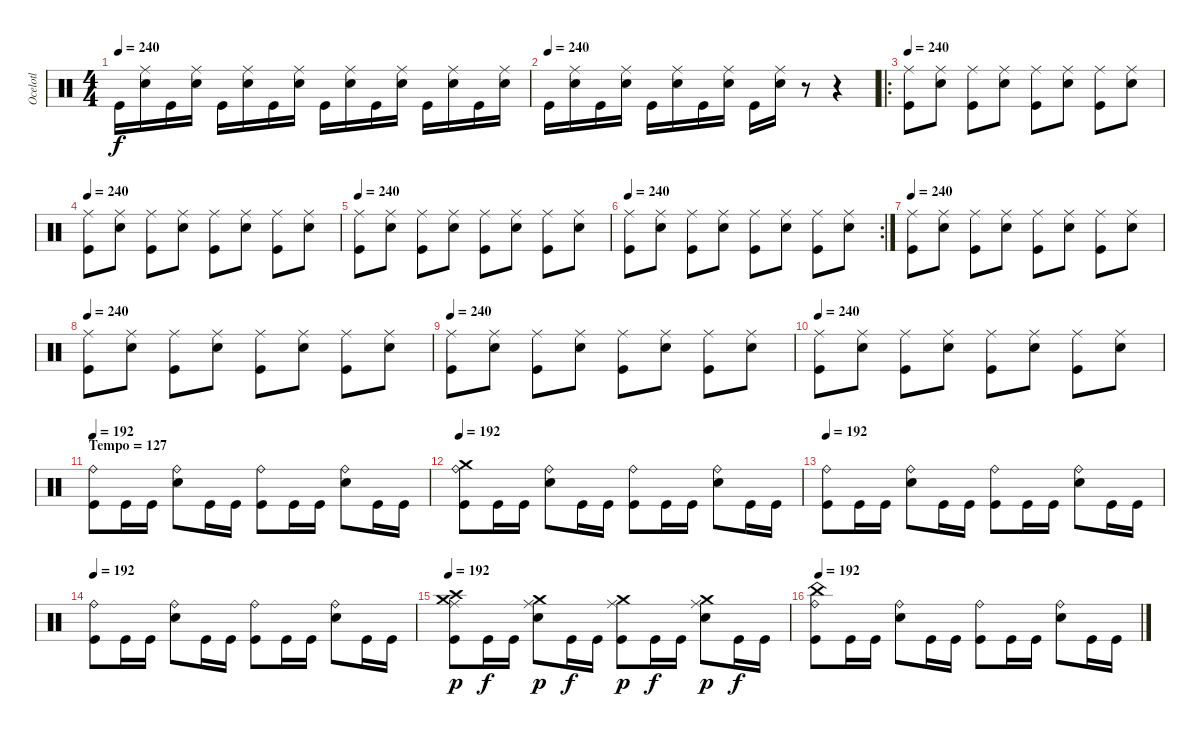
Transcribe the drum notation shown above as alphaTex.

\track ("Ocelotl" "Ocelotl") {instrument percussion}
\staff {score}
\articulation defaults
\ts (4 4)
\tempo 240
\clef neutral
\ks c "Kick (hit)".16{dy f}
("Ride (middle)" "Snare (hit) 2").16 "Kick (hit)".16 ("Ride (middle)" "Snare (hit) 2").16 "Kick (hit)".16 ("Ride (middle)" "Snare (hit) 2").16 "Kick (hit)".16 ("Ride (middle)" "Snare (hit) 2").16 "Kick (hit)".16 ("Ride (middle)" "Snare (hit) 2").16 "Kick (hit)".16 ("Ride (middle)" "Snare (hit) 2").16 "Kick (hit)".16 ("Ride (middle)" "Snare (hit) 2").16 "Kick (hit)".16 ("Ride (middle)" "Snare (hit) 2").16 |
\tempo (240)
"Kick (hit)".16 ("Ride (middle)" "Snare (hit) 2").16 "Kick (hit)".16 ("Ride (middle)" "Snare (hit) 2").16 "Kick (hit)".16 ("Ride (middle)" "Snare (hit) 2").16 "Kick (hit)".16 ("Ride (middle)" "Snare (hit) 2").16 "Kick (hit)".16 ("Ride (middle)" "Snare (hit) 2").16 r.8 r.4 |
\ro
\tempo 240
("Ride (middle)" "Kick (hit)").8 ("Ride (middle)" "Snare (hit) 2").8 ("Ride (middle)" "Kick (hit)").8 ("Ride (middle)" "Snare (hit) 2").8 ("Ride (middle)" "Kick (hit)").8 ("Ride (middle)" "Snare (hit) 2").8 ("Ride (middle)" "Kick (hit)").8 ("Ride (middle)" "Snare (hit) 2").8 |
\tempo 240
("Ride (middle)" "Kick (hit)").8 ("Ride (middle)" "Snare (hit) 2").8 ("Ride (middle)" "Kick (hit)").8 ("Ride (middle)" "Snare (hit) 2").8 ("Ride (middle)" "Kick (hit)").8 ("Ride (middle)" "Snare (hit) 2").8 ("Ride (middle)" "Kick (hit)").8 ("Ride (middle)" "Snare (hit) 2").8 |
\tempo 240
("Ride (middle)" "Kick (hit)").8 ("Ride (middle)" "Snare (hit) 2").8 ("Ride (middle)" "Kick (hit)").8 ("Ride (middle)" "Snare (hit) 2").8 ("Ride (middle)" "Kick (hit)").8 ("Ride (middle)" "Snare (hit) 2").8 ("Ride (middle)" "Kick (hit)").8 ("Ride (middle)" "Snare (hit) 2").8 |
\rc 2
\tempo 240
("Ride (middle)" "Kick (hit)").8 ("Ride (middle)" "Snare (hit) 2").8 ("Ride (middle)" "Kick (hit)").8 ("Ride (middle)" "Snare (hit) 2").8 ("Ride (middle)" "Kick (hit)").8 ("Ride (middle)" "Snare (hit) 2").8 ("Ride (middle)" "Kick (hit)").8 ("Ride (middle)" "Snare (hit) 2").8 |
\tempo 240
("Ride (middle)" "Kick (hit)").8 ("Ride (middle)" "Snare (hit) 2").8 ("Ride (middle)" "Kick (hit)").8 ("Ride (middle)" "Snare (hit) 2").8 ("Ride (middle)" "Kick (hit)").8 ("Ride (middle)" "Snare (hit) 2").8 ("Ride (middle)" "Kick (hit)").8 ("Ride (middle)" "Snare (hit) 2").8 |
\tempo 240
("Ride (middle)" "Kick (hit)").8 ("Ride (middle)" "Snare (hit) 2").8 ("Ride (middle)" "Kick (hit)").8 ("Ride (middle)" "Snare (hit) 2").8 ("Ride (middle)" "Kick (hit)").8 ("Ride (middle)" "Snare (hit) 2").8 ("Ride (middle)" "Kick (hit)").8 ("Ride (middle)" "Snare (hit) 2").8 |
\tempo 240
("Ride (middle)" "Kick (hit)").8 ("Ride (middle)" "Snare (hit) 2").8 ("Ride (middle)" "Kick (hit)").8 ("Ride (middle)" "Snare (hit) 2").8 ("Ride (middle)" "Kick (hit)").8 ("Ride (middle)" "Snare (hit) 2").8 ("Ride (middle)" "Kick (hit)").8 ("Ride (middle)" "Snare (hit) 2").8 |
\tempo 240
("Ride (middle)" "Kick (hit)").8 ("Ride (middle)" "Snare (hit) 2").8 ("Ride (middle)" "Kick (hit)").8 ("Ride (middle)" "Snare (hit) 2").8 ("Ride (middle)" "Kick (hit)").8 ("Ride (middle)" "Snare (hit) 2").8 ("Ride (middle)" "Kick (hit)").8 ("Ride (middle)" "Snare (hit) 2").8 |
\section ("" "Tempo = 127")
\tempo 192
("Ride (bell)" "Kick (hit)").8 "Kick (hit)".16 "Kick (hit)".16 ("Ride (bell)" "Snare (hit) 2").8 "Kick (hit)".16 "Kick (hit)".16 ("Ride (bell)" "Kick (hit)").8 "Kick (hit)".16 "Kick (hit)".16 ("Ride (bell)" "Snare (hit) 2").8 "Kick (hit)".16 "Kick (hit)".16 |
\tempo 192
("Ride (bell)" "Kick (hit)" "Crash medium (hit)").8 "Kick (hit)".16 "Kick (hit)".16 ("Ride (bell)" "Snare (hit) 2").8 "Kick (hit)".16 "Kick (hit)".16 ("Ride (bell)" "Kick (hit)").8 "Kick (hit)".16 "Kick (hit)".16 ("Ride (bell)" "Snare (hit) 2").8 "Kick (hit)".16 "Kick (hit)".16 |
\tempo 192
("Ride (bell)" "Kick (hit)").8 "Kick (hit)".16 "Kick (hit)".16 ("Ride (bell)" "Snare (hit) 2").8 "Kick (hit)".16 "Kick (hit)".16 ("Ride (bell)" "Kick (hit)").8 "Kick (hit)".16 "Kick (hit)".16 ("Ride (bell)" "Snare (hit) 2").8 "Kick (hit)".16 "Kick (hit)".16 |
\tempo 192
("Ride (bell)" "Kick (hit)").8 "Kick (hit)".16 "Kick (hit)".16 ("Ride (bell)" "Snare (hit) 2").8 "Kick (hit)".16 "Kick (hit)".16 ("Ride (bell)" "Kick (hit)").8 "Kick (hit)".16 "Kick (hit)".16 ("Ride (bell)" "Snare (hit) 2").8 "Kick (hit)".16 "Kick (hit)".16 |
\tempo 192
("Crash medium (hit)" "Ride (middle)" "Kick (hit)" "Crash high (hit)").8{dy p} "Kick (hit)".16{dy f} "Kick (hit)".16 ("Crash medium (hit)" "Ride (middle)" "Snare (hit) 2").8{dy p} "Kick (hit)".16{dy f} "Kick (hit)".16 ("Crash medium (hit)" "Ride (middle)" "Kick (hit)").8{dy p} "Kick (hit)".16{dy f} "Kick (hit)".16 ("Crash medium (hit)" "Ride (middle)" "Snare (hit) 2").8{dy p} "Kick (hit)".16{dy f} "Kick (hit)".16 |
\tempo 192
("Ride (bell)" "Kick (hit)" "China (hit)").8 "Kick (hit)".16 "Kick (hit)".16 ("Ride (bell)" "Snare (hit) 2").8 "Kick (hit)".16 "Kick (hit)".16 ("Ride (bell)" "Kick (hit)").8 "Kick (hit)".16 "Kick (hit)".16 ("Ride (bell)" "Snare (hit) 2").8 "Kick (hit)".16 "Kick (hit)".16
